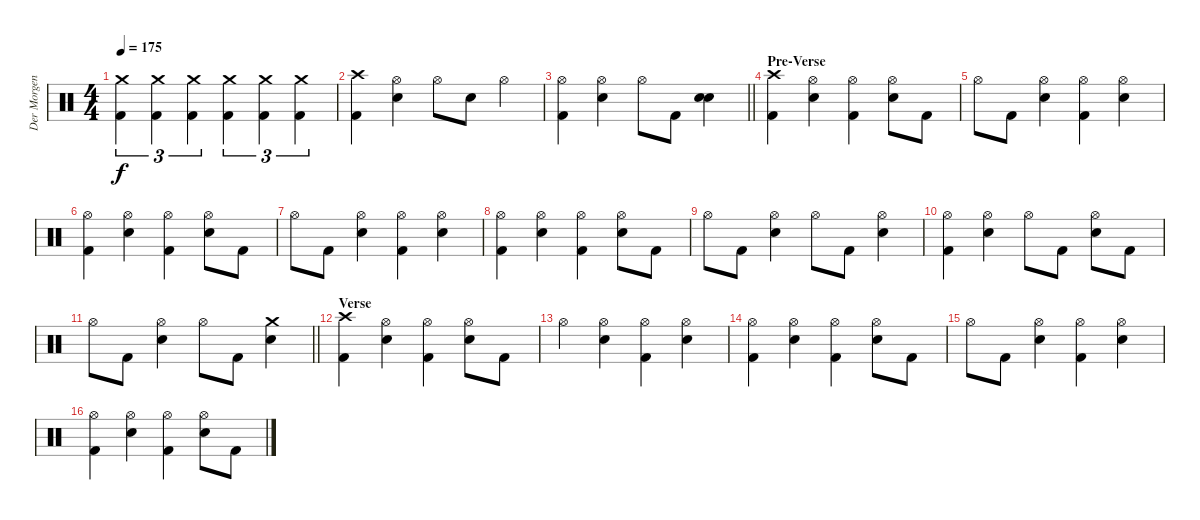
\track ("Der Morgenstern" "Der Morgen") {instrument percussion}
\staff {score}
\articulation defaults
\ts (4 4)
\tempo 175
\clef neutral
\ks c
("Crash medium (hit)" "Kick (hit) 2").4{tu (3 2) dy f} ("Crash medium (hit)" "Kick (hit) 2").4{tu (3 2)} ("Crash medium (hit)" "Kick (hit) 2").4{tu (3 2)} ("Crash medium (hit)" "Kick (hit) 2").4{tu (3 2)} ("Crash medium (hit)" "Kick (hit) 2").4{tu (3 2)} ("Crash medium (hit)" "Kick (hit) 2").4{tu (3 2)} |
("Crash high (hit)" "Kick (hit) 2").4 ("Hi-Hat (open)" "Electric Snare (hit)").4 "Hi-Hat (open)".8 "Electric Snare (hit)".8 "Hi-Hat (open)".4 |
\barLineRight lightlight
("Hi-Hat (open)" "Kick (hit) 2").4 ("Hi-Hat (open)" "Electric Snare (hit)").4 "Hi-Hat (open)".8 "Kick (hit) 2".8 ("Electric Snare (hit)" "Electric Snare (hit)").4 |
\section ("" "Pre-Verse")
("Crash high (hit)" "Kick (hit) 2").4 ("Hi-Hat (open)" "Electric Snare (hit)").4 ("Hi-Hat (open)" "Kick (hit) 2").4 ("Hi-Hat (open)" "Electric Snare (hit)").8 "Kick (hit) 2".8 |
"Hi-Hat (open)".8 "Kick (hit) 2".8 ("Hi-Hat (open)" "Electric Snare (hit)").4 ("Hi-Hat (open)" "Kick (hit) 2").4 ("Hi-Hat (open)" "Electric Snare (hit)").4 |
("Hi-Hat (open)" "Kick (hit) 2").4 ("Hi-Hat (open)" "Electric Snare (hit)").4 ("Hi-Hat (open)" "Kick (hit) 2").4 ("Hi-Hat (open)" "Electric Snare (hit)").8 "Kick (hit) 2".8 |
"Hi-Hat (open)".8 "Kick (hit) 2".8 ("Hi-Hat (open)" "Electric Snare (hit)").4 ("Hi-Hat (open)" "Kick (hit) 2").4 ("Hi-Hat (open)" "Electric Snare (hit)").4 |
("Hi-Hat (open)" "Kick (hit) 2").4 ("Hi-Hat (open)" "Electric Snare (hit)").4 ("Hi-Hat (open)" "Kick (hit) 2").4 ("Hi-Hat (open)" "Electric Snare (hit)").8 "Kick (hit) 2".8 |
"Hi-Hat (open)".8 "Kick (hit) 2".8 ("Hi-Hat (open)" "Electric Snare (hit)").4 "Hi-Hat (open)".8 "Kick (hit) 2".8 ("Hi-Hat (open)" "Electric Snare (hit)").4 |
("Hi-Hat (open)" "Kick (hit) 2").4 ("Hi-Hat (open)" "Electric Snare (hit)").4 "Hi-Hat (open)".8 "Kick (hit) 2".8 ("Hi-Hat (open)" "Electric Snare (hit)").8 "Kick (hit) 2".8 |
\barLineRight lightlight "Hi-Hat (open)".8 "Kick (hit) 2".8
("Hi-Hat (open)" "Electric Snare (hit)").4 "Hi-Hat (open)".8 "Kick (hit) 2".8 ("Crash medium (hit)" "Electric Snare (hit)").4 |
\section ("" "Verse")
("Crash high (hit)" "Kick (hit) 2").4 ("Hi-Hat (open)" "Electric Snare (hit)").4 ("Hi-Hat (open)" "Kick (hit) 2").4 ("Hi-Hat (open)" "Electric Snare (hit)").8 "Kick (hit) 2".8 |
"Hi-Hat (open)".4 ("Hi-Hat (open)" "Electric Snare (hit)").4 ("Hi-Hat (open)" "Kick (hit) 2").4 ("Hi-Hat (open)" "Electric Snare (hit)").4 |
("Hi-Hat (open)" "Kick (hit) 2").4 ("Hi-Hat (open)" "Electric Snare (hit)").4 ("Hi-Hat (open)" "Kick (hit) 2").4 ("Hi-Hat (open)" "Electric Snare (hit)").8 "Kick (hit) 2".8 |
"Hi-Hat (open)".8 "Kick (hit) 2".8 ("Hi-Hat (open)" "Electric Snare (hit)").4 ("Hi-Hat (open)" "Kick (hit) 2").4 ("Hi-Hat (open)" "Electric Snare (hit)").4 |
("Hi-Hat (open)" "Kick (hit) 2").4 ("Hi-Hat (open)" "Electric Snare (hit)").4 ("Hi-Hat (open)" "Kick (hit) 2").4 ("Hi-Hat (open)" "Electric Snare (hit)").8 "Kick (hit) 2".8
